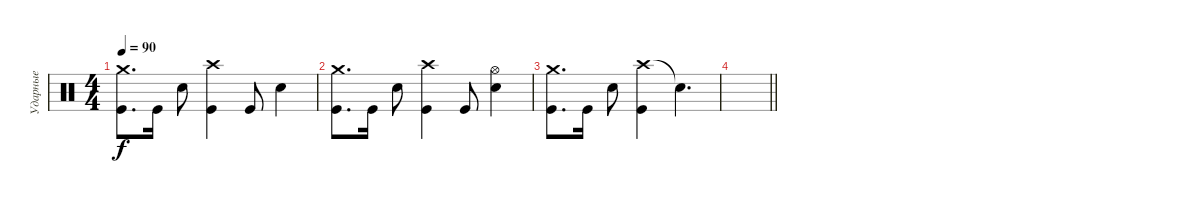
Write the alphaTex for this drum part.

\track ("Ударные" "Ударные") {instrument percussion}
\staff {score}
\articulation defaults
\ts (4 4)
\tempo 90
\clef neutral
\ks c
("Crash medium (hit)" "Kick (hit)").8{d dy f} "Kick (hit)".16 "Snare (hit) 2".8 ("Crash high (hit)" "Kick (hit)").4 "Kick (hit)".8 "Snare (hit) 2".4 |
("Crash medium (hit)" "Kick (hit)").8{d} "Kick (hit)".16 "Snare (hit) 2".8 ("Crash high (hit)" "Kick (hit)").4 "Kick (hit)".8 ("Hi-Hat (open)" "Snare (hit) 2").4 |
("Crash medium (hit)" "Kick (hit)").8{d} "Kick (hit)".16 "Snare (hit) 2".8 ("Crash high (hit)" "Kick (hit)").4 "Snare (hit)"{t}.4{d} |
\barLineRight lightlight
